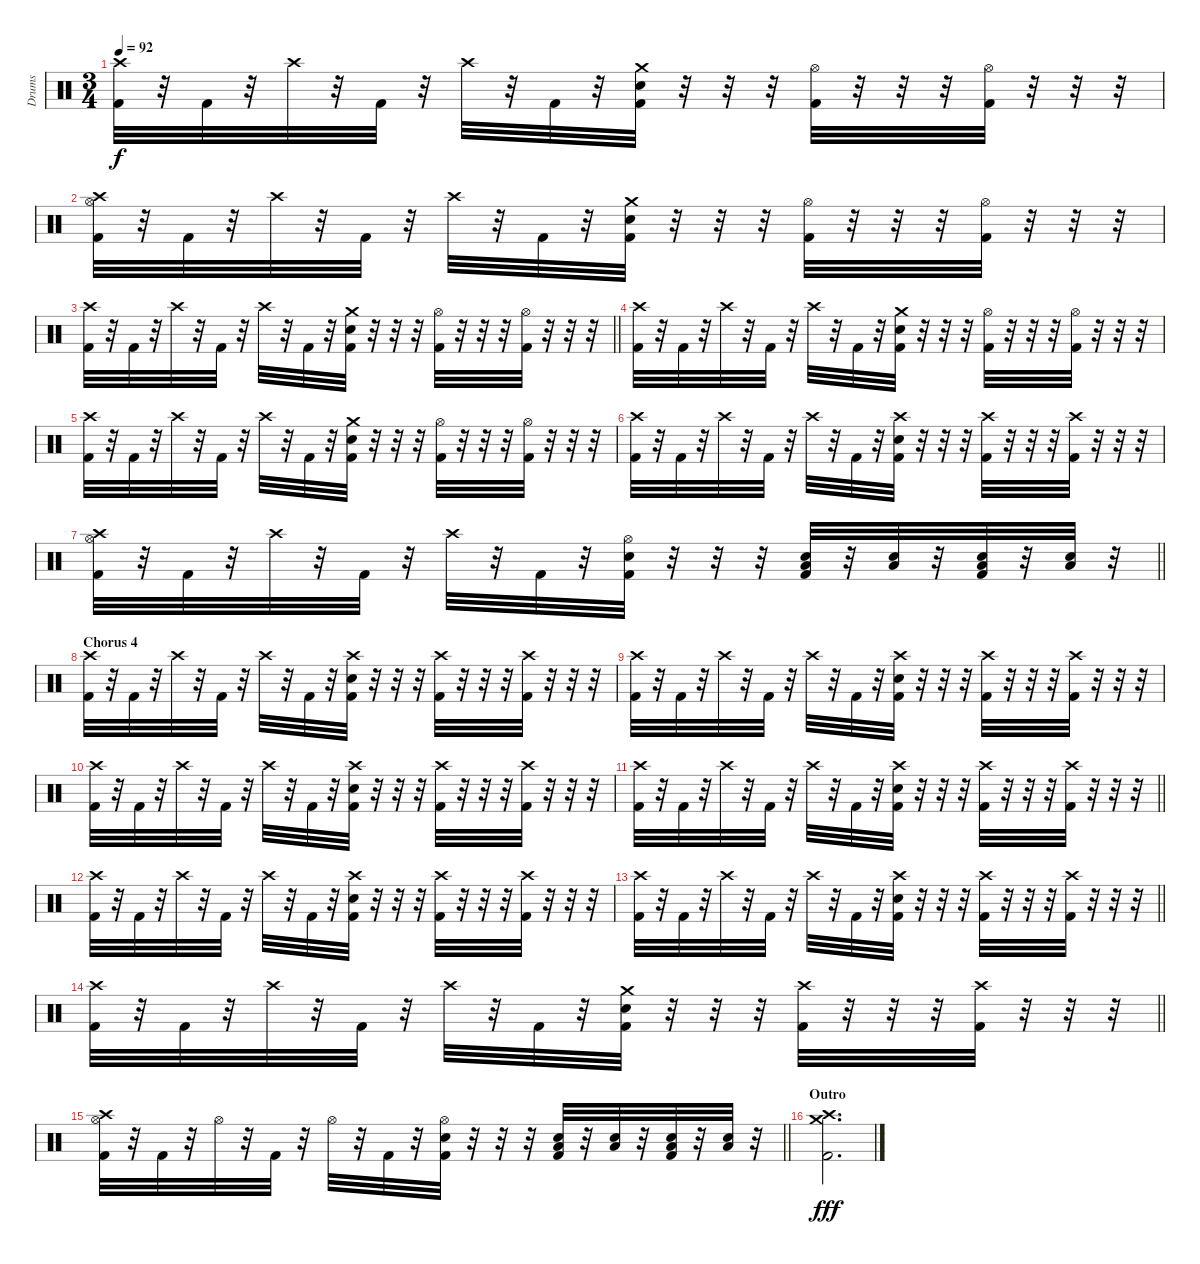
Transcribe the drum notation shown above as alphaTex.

\track ("Drums" "Drums") {instrument percussion}
\staff {score}
\articulation defaults
\ts (3 4)
\tempo 92
\clef neutral
\ks c
("Crash high (hit)" "Kick (hit) 2").32{dy f} r.32 "Kick (hit) 2".32 r.32 "Crash high (hit)".32 r.32 "Kick (hit) 2".32 r.32 "Crash high (hit)".32 r.32 "Kick (hit) 2".32 r.32 ("Crash medium (hit)" "Electric Snare (hit)" "Kick (hit) 2").32 r.32 r.32 r.32 ("Hi-Hat (open)" "Kick (hit) 2").32 r.32 r.32 r.32 ("Hi-Hat (open)" "Kick (hit) 2").32 r.32 r.32 r.32 |
("Crash high (hit)" "Hi-Hat (open)" "Kick (hit) 2").32 r.32 "Kick (hit) 2".32 r.32 "Crash high (hit)".32 r.32 "Kick (hit) 2".32 r.32 "Crash high (hit)".32 r.32 "Kick (hit) 2".32 r.32 ("Crash medium (hit)" "Electric Snare (hit)" "Kick (hit) 2").32 r.32 r.32 r.32 ("Hi-Hat (open)" "Kick (hit) 2").32 r.32 r.32 r.32 ("Hi-Hat (open)" "Kick (hit) 2").32 r.32 r.32 r.32 |
\barLineRight lightlight
("Crash high (hit)" "Kick (hit) 2").32 r.32 "Kick (hit) 2".32 r.32 "Crash high (hit)".32 r.32 "Kick (hit) 2".32 r.32 "Crash high (hit)".32 r.32 "Kick (hit) 2".32 r.32 ("Crash medium (hit)" "Electric Snare (hit)" "Kick (hit) 2").32 r.32 r.32 r.32 ("Hi-Hat (open)" "Kick (hit) 2").32 r.32 r.32 r.32 ("Hi-Hat (open)" "Kick (hit) 2").32 r.32 r.32 r.32 |
("Crash high (hit)" "Kick (hit) 2").32 r.32 "Kick (hit) 2".32 r.32 "Crash high (hit)".32 r.32 "Kick (hit) 2".32 r.32 "Crash high (hit)".32 r.32 "Kick (hit) 2".32 r.32 ("Crash medium (hit)" "Electric Snare (hit)" "Kick (hit) 2").32 r.32 r.32 r.32 ("Hi-Hat (open)" "Kick (hit) 2").32 r.32 r.32 r.32 ("Hi-Hat (open)" "Kick (hit) 2").32 r.32 r.32 r.32 |
("Crash high (hit)" "Kick (hit) 2").32 r.32 "Kick (hit) 2".32 r.32 "Crash high (hit)".32 r.32 "Kick (hit) 2".32 r.32 "Crash high (hit)".32 r.32 "Kick (hit) 2".32 r.32 ("Crash medium (hit)" "Electric Snare (hit)" "Kick (hit) 2").32 r.32 r.32 r.32 ("Hi-Hat (open)" "Kick (hit) 2").32 r.32 r.32 r.32 ("Hi-Hat (open)" "Kick (hit) 2").32 r.32 r.32 r.32 |
("Crash high (hit)" "Kick (hit) 2").32 r.32 "Kick (hit) 2".32 r.32 "Crash high (hit)".32 r.32 "Kick (hit) 2".32 r.32 "Crash high (hit)".32 r.32 "Kick (hit) 2".32 r.32 ("Crash high (hit)" "Electric Snare (hit)" "Kick (hit) 2").32 r.32 r.32 r.32 ("Crash high (hit)" "Kick (hit) 2").32 r.32 r.32 r.32 ("Crash high (hit)" "Kick (hit) 2").32 r.32 r.32 r.32 |
\barLineRight lightlight
("Crash high (hit)" "Hi-Hat (open)" "Kick (hit) 2").32 r.32 "Kick (hit) 2".32 r.32 "Crash high (hit)".32 r.32 "Kick (hit) 2".32 r.32 "Crash high (hit)".32 r.32 "Kick (hit) 2".32 r.32 ("Hi-Hat (open)" "Electric Snare (hit)" "Kick (hit) 2").32 r.32 r.32 r.32 ("Electric Snare (hit)" "Low Floor Tom (hit)" "Kick (hit) 2").32 r.32 ("Electric Snare (hit)" "Low Floor Tom (hit)").32 r.32 ("Electric Snare (hit)" "Low Floor Tom (hit)" "Kick (hit) 2").32 r.32 ("Electric Snare (hit)" "Low Floor Tom (hit)").32 r.32 |
\section ("" "Chorus 4")
("Crash high (hit)" "Kick (hit) 2").32 r.32 "Kick (hit) 2".32 r.32 "Crash high (hit)".32 r.32 "Kick (hit) 2".32 r.32 "Crash high (hit)".32 r.32 "Kick (hit) 2".32 r.32 ("Crash high (hit)" "Electric Snare (hit)" "Kick (hit) 2").32 r.32 r.32 r.32 ("Crash high (hit)" "Kick (hit) 2").32 r.32 r.32 r.32 ("Crash high (hit)" "Kick (hit) 2").32 r.32 r.32 r.32 |
("Crash high (hit)" "Kick (hit) 2").32 r.32 "Kick (hit) 2".32 r.32 "Crash high (hit)".32 r.32 "Kick (hit) 2".32 r.32 "Crash high (hit)".32 r.32 "Kick (hit) 2".32 r.32 ("Crash high (hit)" "Electric Snare (hit)" "Kick (hit) 2").32 r.32 r.32 r.32 ("Crash high (hit)" "Kick (hit) 2").32 r.32 r.32 r.32 ("Crash high (hit)" "Kick (hit) 2").32 r.32 r.32 r.32 |
("Crash high (hit)" "Kick (hit) 2").32 r.32 "Kick (hit) 2".32 r.32 "Crash high (hit)".32 r.32 "Kick (hit) 2".32 r.32 "Crash high (hit)".32 r.32 "Kick (hit) 2".32 r.32 ("Crash high (hit)" "Electric Snare (hit)" "Kick (hit) 2").32 r.32 r.32 r.32 ("Crash high (hit)" "Kick (hit) 2").32 r.32 r.32 r.32 ("Crash high (hit)" "Kick (hit) 2").32 r.32 r.32 r.32 |
\barLineRight lightlight
("Crash high (hit)" "Kick (hit) 2").32 r.32 "Kick (hit) 2".32 r.32 "Crash high (hit)".32 r.32 "Kick (hit) 2".32 r.32 "Crash high (hit)".32 r.32 "Kick (hit) 2".32 r.32 ("Crash high (hit)" "Electric Snare (hit)" "Kick (hit) 2").32 r.32 r.32 r.32 ("Crash high (hit)" "Kick (hit) 2").32 r.32 r.32 r.32 ("Crash high (hit)" "Kick (hit) 2").32 r.32 r.32 r.32 |
("Crash high (hit)" "Kick (hit) 2").32 r.32 "Kick (hit) 2".32 r.32 "Crash high (hit)".32 r.32 "Kick (hit) 2".32 r.32 "Crash high (hit)".32 r.32 "Kick (hit) 2".32 r.32 ("Crash high (hit)" "Electric Snare (hit)" "Kick (hit) 2").32 r.32 r.32 r.32 ("Crash high (hit)" "Kick (hit) 2").32 r.32 r.32 r.32 ("Crash high (hit)" "Kick (hit) 2").32 r.32 r.32 r.32 |
\barLineRight lightlight
("Crash high (hit)" "Kick (hit) 2").32 r.32 "Kick (hit) 2".32 r.32 "Crash high (hit)".32 r.32 "Kick (hit) 2".32 r.32 "Crash high (hit)".32 r.32 "Kick (hit) 2".32 r.32 ("Crash high (hit)" "Electric Snare (hit)" "Kick (hit) 2").32 r.32 r.32 r.32 ("Crash high (hit)" "Kick (hit) 2").32 r.32 r.32 r.32 ("Crash high (hit)" "Kick (hit) 2").32 r.32 r.32 r.32 |
\barLineRight lightlight
("Crash high (hit)" "Kick (hit) 2").32 r.32 "Kick (hit) 2".32 r.32 "Crash high (hit)".32 r.32 "Kick (hit) 2".32 r.32 "Crash high (hit)".32 r.32 "Kick (hit) 2".32 r.32 ("Crash medium (hit)" "Electric Snare (hit)" "Kick (hit) 2").32 r.32 r.32 r.32 ("Crash high (hit)" "Kick (hit) 2").32 r.32 r.32 r.32 ("Crash high (hit)" "Kick (hit) 2").32 r.32 r.32 r.32 |
\barLineRight lightlight
("Crash high (hit)" "Hi-Hat (open)" "Kick (hit) 2").32 r.32 "Kick (hit) 2".32 r.32 "Hi-Hat (open)".32 r.32 "Kick (hit) 2".32 r.32 "Hi-Hat (open)".32 r.32 "Kick (hit) 2".32 r.32 ("Hi-Hat (open)" "Electric Snare (hit)" "Kick (hit) 2").32 r.32 r.32 r.32 ("Electric Snare (hit)" "Low Floor Tom (hit)" "Kick (hit) 2").32 r.32 ("Electric Snare (hit)" "Low Floor Tom (hit)").32 r.32 ("Electric Snare (hit)" "Low Floor Tom (hit)" "Kick (hit) 2").32 r.32 ("Electric Snare (hit)" "Low Floor Tom (hit)").32 r.32 |
\section ("" "Outro")
("Crash high (hit)" "Crash medium (hit)" "Kick (hit) 2").2{d dy fff}
